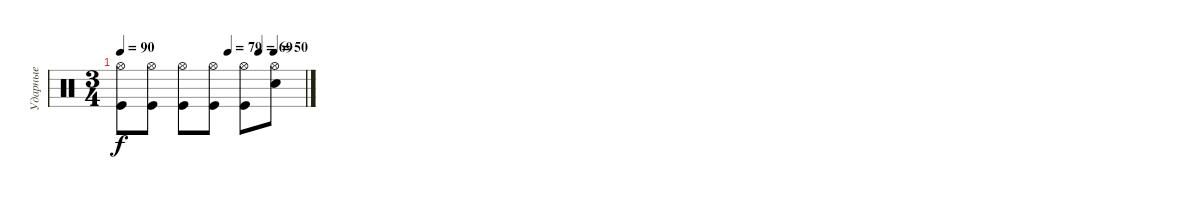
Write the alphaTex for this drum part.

\track ("Ударные" "Ударные") {instrument percussion}
\staff {score}
\articulation defaults
\ts (3 4)
\tempo 90
\tempo (79 0.5833333333333334)
\tempo (69 0.75)
\tempo (50 0.8333333333333334)
\clef neutral
\ks c
("Hi-Hat (open)" "Kick (hit)").8{dy f} ("Hi-Hat (open)" "Kick (hit)").8 ("Hi-Hat (open)" "Kick (hit)").8 ("Hi-Hat (open)" "Kick (hit)").8 ("Hi-Hat (open)" "Kick (hit)").8 ("Hi-Hat (open)" "Electric Snare (hit)").8
